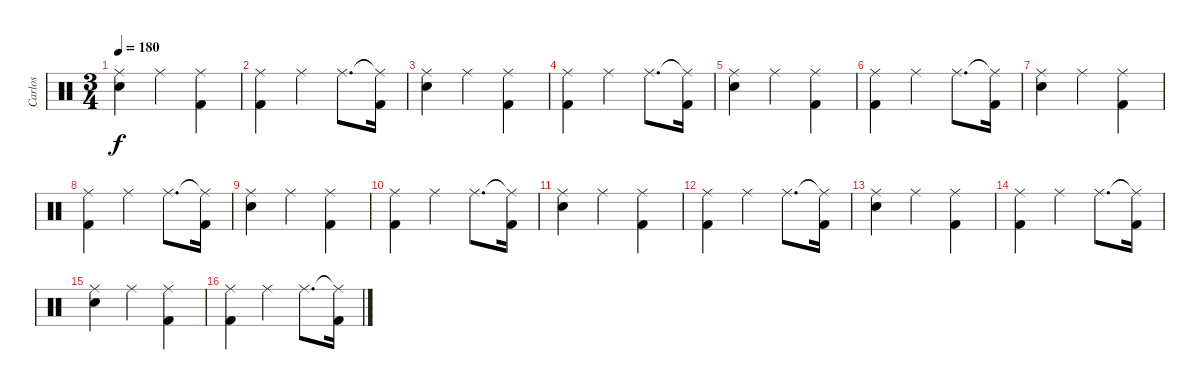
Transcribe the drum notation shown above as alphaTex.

\track ("Carlos" "Carlos") {instrument percussion}
\staff {score}
\articulation defaults
\ts (3 4)
\tempo 180
\clef neutral
\ks c
("Ride (middle)" "Snare (hit) 2").4{dy f} "Ride (middle)".4 ("Ride (middle)" "Kick (hit) 2").4 |
("Ride (middle)" "Kick (hit) 2").4 "Ride (middle)".4 "Ride (middle)".8{d} ("Ride (middle)"{t} "Kick (hit) 2").16 |
("Ride (middle)" "Snare (hit) 2").4 "Ride (middle)".4 ("Ride (middle)" "Kick (hit) 2").4 |
("Ride (middle)" "Kick (hit) 2").4 "Ride (middle)".4 "Ride (middle)".8{d} ("Ride (middle)"{t} "Kick (hit) 2").16 |
("Ride (middle)" "Snare (hit) 2").4 "Ride (middle)".4 ("Ride (middle)" "Kick (hit) 2").4 |
("Ride (middle)" "Kick (hit) 2").4 "Ride (middle)".4 "Ride (middle)".8{d} ("Ride (middle)"{t} "Kick (hit) 2").16 |
("Ride (middle)" "Snare (hit) 2").4 "Ride (middle)".4 ("Ride (middle)" "Kick (hit) 2").4 |
("Ride (middle)" "Kick (hit) 2").4 "Ride (middle)".4 "Ride (middle)".8{d} ("Ride (middle)"{t} "Kick (hit) 2").16 |
("Ride (middle)" "Snare (hit) 2").4 "Ride (middle)".4 ("Ride (middle)" "Kick (hit) 2").4 |
("Ride (middle)" "Kick (hit) 2").4 "Ride (middle)".4 "Ride (middle)".8{d} ("Ride (middle)"{t} "Kick (hit) 2").16 |
("Ride (middle)" "Snare (hit) 2").4 "Ride (middle)".4 ("Ride (middle)" "Kick (hit) 2").4 |
("Ride (middle)" "Kick (hit) 2").4 "Ride (middle)".4 "Ride (middle)".8{d} ("Ride (middle)"{t} "Kick (hit) 2").16 |
("Ride (middle)" "Snare (hit) 2").4 "Ride (middle)".4 ("Ride (middle)" "Kick (hit) 2").4 |
("Ride (middle)" "Kick (hit) 2").4 "Ride (middle)".4 "Ride (middle)".8{d} ("Ride (middle)"{t} "Kick (hit) 2").16 |
("Ride (middle)" "Snare (hit) 2").4 "Ride (middle)".4 ("Ride (middle)" "Kick (hit) 2").4 |
("Ride (middle)" "Kick (hit) 2").4 "Ride (middle)".4 "Ride (middle)".8{d} ("Ride (middle)"{t} "Kick (hit) 2").16
